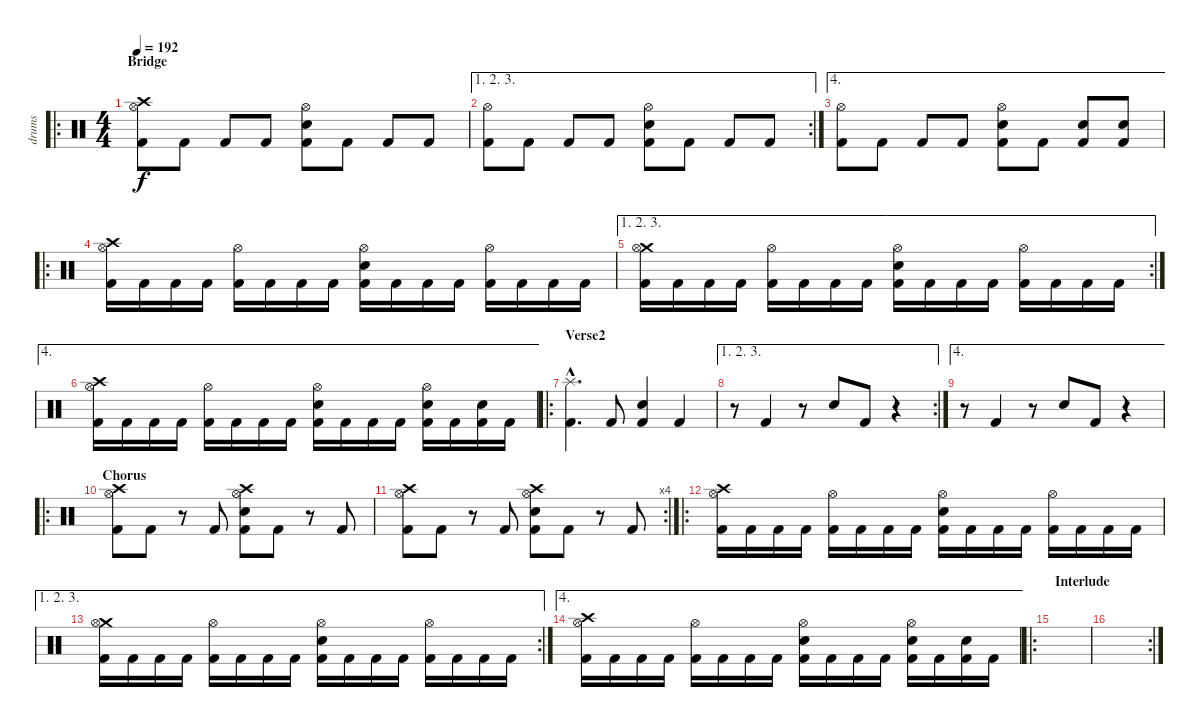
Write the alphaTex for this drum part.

\track ("drums" "drums") {instrument percussion}
\staff {score}
\articulation defaults
\ro
\ts (4 4)
\section ("" "Bridge")
\tempo 192
\clef neutral
\ks c
("Crash high (hit)" "Hi-Hat (open)" "Kick (hit) 2").8{dy f} "Kick (hit) 2".8 "Kick (hit) 2".8 "Kick (hit) 2".8 ("Hi-Hat (open)" "Electric Snare (hit)" "Kick (hit) 2").8 "Kick (hit) 2".8 "Kick (hit) 2".8 "Kick (hit) 2".8 |
\ae (1 2 3)
\rc 2
("Hi-Hat (open)" "Kick (hit) 2").8 "Kick (hit) 2".8 "Kick (hit) 2".8 "Kick (hit) 2".8 ("Hi-Hat (open)" "Electric Snare (hit)" "Kick (hit) 2").8 "Kick (hit) 2".8 "Kick (hit) 2".8 "Kick (hit) 2".8 |
\ae 4
("Hi-Hat (open)" "Kick (hit) 2").8 "Kick (hit) 2".8 "Kick (hit) 2".8 "Kick (hit) 2".8 ("Hi-Hat (open)" "Electric Snare (hit)" "Kick (hit) 2").8 "Kick (hit) 2".8 ("Electric Snare (hit)" "Kick (hit) 2").8 ("Electric Snare (hit)" "Kick (hit) 2").8 |
\ro
("Crash high (hit)" "Hi-Hat (open)" "Kick (hit) 2").16 "Kick (hit) 2".16 "Kick (hit) 2".16 "Kick (hit) 2".16 ("Hi-Hat (open)" "Kick (hit) 2").16 "Kick (hit) 2".16 "Kick (hit) 2".16 "Kick (hit) 2".16 ("Hi-Hat (open)" "Electric Snare (hit)" "Kick (hit) 2").16 "Kick (hit) 2".16 "Kick (hit) 2".16 "Kick (hit) 2".16 ("Hi-Hat (open)" "Kick (hit) 2").16 "Kick (hit) 2".16 "Kick (hit) 2".16 "Kick (hit) 2".16 |
\ae (1 2 3)
\rc 2
("Crash medium (hit)" "Hi-Hat (open)" "Kick (hit) 2").16 "Kick (hit) 2".16 "Kick (hit) 2".16 "Kick (hit) 2".16 ("Hi-Hat (open)" "Kick (hit) 2").16 "Kick (hit) 2".16 "Kick (hit) 2".16 "Kick (hit) 2".16 ("Hi-Hat (open)" "Electric Snare (hit)" "Kick (hit) 2").16 "Kick (hit) 2".16 "Kick (hit) 2".16 "Kick (hit) 2".16 ("Hi-Hat (open)" "Kick (hit) 2").16 "Kick (hit) 2".16 "Kick (hit) 2".16 "Kick (hit) 2".16 |
\ae 4
("Crash high (hit)" "Hi-Hat (open)" "Kick (hit) 2").16 "Kick (hit) 2".16 "Kick (hit) 2".16 "Kick (hit) 2".16 ("Hi-Hat (open)" "Kick (hit) 2").16 "Kick (hit) 2".16 "Kick (hit) 2".16 "Kick (hit) 2".16 ("Hi-Hat (open)" "Electric Snare (hit)" "Kick (hit) 2").16 "Kick (hit) 2".16 "Kick (hit) 2".16 "Kick (hit) 2".16 ("Hi-Hat (open)" "Electric Snare (hit)" "Kick (hit) 2").16 "Kick (hit) 2".16 ("Electric Snare (hit)" "Kick (hit) 2").16 "Kick (hit) 2".16 |
\ro
\section ("" "Verse2")
("Splash (hit)"{hac} "Kick (hit) 2"{hac}).4{d} "Kick (hit) 2".8 ("Electric Snare (hit)" "Kick (hit) 2").4 "Kick (hit) 2".4 |
\ae (1 2 3)
\rc 2
r.8 "Kick (hit) 2".4 r.8 "Electric Snare (hit)".8 "Kick (hit) 2".8 r.4 |
\ae 4
r.8 "Kick (hit) 2".4 r.8 "Electric Snare (hit)".8 "Kick (hit) 2".8 r.4 |
\ro
\section ("" "Chorus")
("Crash high (hit)" "Hi-Hat (open)" "Kick (hit) 2").8 "Kick (hit) 2".8 r.8 "Kick (hit) 2".8 ("Crash high (hit)" "Hi-Hat (open)" "Electric Snare (hit)" "Kick (hit) 2").8 "Kick (hit) 2".8 r.8 "Kick (hit) 2".8 |
\rc 4
("Crash high (hit)" "Hi-Hat (open)" "Kick (hit) 2").8 "Kick (hit) 2".8 r.8 "Kick (hit) 2".8 ("Crash high (hit)" "Hi-Hat (open)" "Electric Snare (hit)" "Kick (hit) 2").8 "Kick (hit) 2".8 r.8 "Kick (hit) 2".8 |
\ro
("Crash high (hit)" "Hi-Hat (open)" "Kick (hit) 2").16 "Kick (hit) 2".16 "Kick (hit) 2".16 "Kick (hit) 2".16 ("Hi-Hat (open)" "Kick (hit) 2").16 "Kick (hit) 2".16 "Kick (hit) 2".16 "Kick (hit) 2".16 ("Hi-Hat (open)" "Electric Snare (hit)" "Kick (hit) 2").16 "Kick (hit) 2".16 "Kick (hit) 2".16 "Kick (hit) 2".16 ("Hi-Hat (open)" "Kick (hit) 2").16 "Kick (hit) 2".16 "Kick (hit) 2".16 "Kick (hit) 2".16 |
\ae (1 2 3)
\rc 2
("Crash medium (hit)" "Hi-Hat (open)" "Kick (hit) 2").16 "Kick (hit) 2".16 "Kick (hit) 2".16 "Kick (hit) 2".16 ("Hi-Hat (open)" "Kick (hit) 2").16 "Kick (hit) 2".16 "Kick (hit) 2".16 "Kick (hit) 2".16 ("Hi-Hat (open)" "Electric Snare (hit)" "Kick (hit) 2").16 "Kick (hit) 2".16 "Kick (hit) 2".16 "Kick (hit) 2".16 ("Hi-Hat (open)" "Kick (hit) 2").16 "Kick (hit) 2".16 "Kick (hit) 2".16 "Kick (hit) 2".16 |
\ae 4
("Crash high (hit)" "Hi-Hat (open)" "Kick (hit) 2").16 "Kick (hit) 2".16 "Kick (hit) 2".16 "Kick (hit) 2".16 ("Hi-Hat (open)" "Kick (hit) 2").16 "Kick (hit) 2".16 "Kick (hit) 2".16 "Kick (hit) 2".16 ("Hi-Hat (open)" "Electric Snare (hit)" "Kick (hit) 2").16 "Kick (hit) 2".16 "Kick (hit) 2".16 "Kick (hit) 2".16 ("Hi-Hat (open)" "Electric Snare (hit)" "Kick (hit) 2").16 "Kick (hit) 2".16 ("Electric Snare (hit)" "Kick (hit) 2").16 "Kick (hit) 2".16 |
\ro
\section ("" "Interlude")
|
\rc 2
